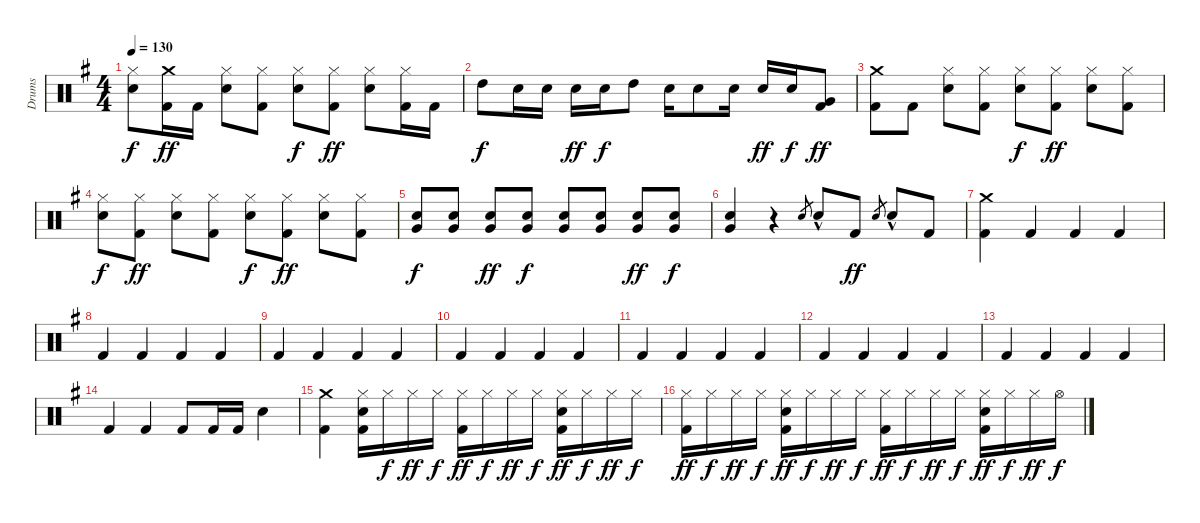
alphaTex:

\track ("Drums" "Drums") {instrument percussion}
\staff {score}
\articulation defaults
\ts (4 4)
\tempo 130
\clef neutral
\ks g
("Snare (hit) 2" "Hi-Hat (closed)").8{dy f} ("Kick (hit) 2" "Crash medium (hit)").16{dy ff} "Kick (hit) 2".16 ("Snare (hit) 2" "Hi-Hat (closed)").8 ("Kick (hit) 2" "Hi-Hat (closed)").8 ("Snare (hit) 2" "Hi-Hat (closed)").8{dy f} ("Kick (hit) 2" "Hi-Hat (closed)").8{dy ff} ("Snare (hit) 2" "Hi-Hat (closed)").8 ("Kick (hit) 2" "Hi-Hat (closed)").16 "Kick (hit) 2".16 |
"High Tom (hit)".8{dy f} "Snare (hit) 2".16 "Snare (hit) 2".16 "Snare (hit) 2".16{dy ff} "Snare (hit) 2".16{dy f} "High Tom (hit)".8 "Snare (hit) 2".16 "Snare (hit) 2".8 "Snare (hit) 2".16 "Snare (hit) 2".16{dy ff} "Snare (hit) 2".16{dy f} ("Kick (hit) 2" "Very Low Tom (hit)").8{dy ff} |
("Kick (hit) 2" "Crash medium (hit)").8 "Kick (hit) 2".8 ("Snare (hit) 2" "Hi-Hat (closed)").8 ("Hi-Hat (closed)" "Kick (hit) 2").8 ("Snare (hit) 2" "Hi-Hat (closed)").8{dy f} ("Kick (hit) 2" "Hi-Hat (closed)").8{dy ff} ("Snare (hit) 2" "Hi-Hat (closed)").8 ("Kick (hit) 2" "Hi-Hat (closed)").8 |
("Snare (hit) 2" "Hi-Hat (closed)").8{dy f} ("Kick (hit) 2" "Hi-Hat (closed)").8{dy ff} ("Snare (hit) 2" "Hi-Hat (closed)").8 ("Kick (hit) 2" "Hi-Hat (closed)").8 ("Snare (hit) 2" "Hi-Hat (closed)").8{dy f} ("Kick (hit) 2" "Hi-Hat (closed)").8{dy ff} ("Snare (hit) 2" "Hi-Hat (closed)").8 ("Kick (hit) 2" "Hi-Hat (closed)").8 |
("Very Low Tom (hit)" "Snare (hit) 2").8{dy f} ("Very Low Tom (hit)" "Snare (hit) 2").8 ("Very Low Tom (hit)" "Snare (hit) 2").8{dy ff} ("Very Low Tom (hit)" "Snare (hit) 2").8{dy f} ("Very Low Tom (hit)" "Snare (hit) 2").8 ("Very Low Tom (hit)" "Snare (hit) 2").8 ("Very Low Tom (hit)" "Snare (hit) 2").8{dy ff} ("Very Low Tom (hit)" "Snare (hit) 2").8{dy f} |
("Very Low Tom (hit)" "Snare (hit) 2").4 r.4 "Snare (hit) 2".8{gr} "Snare (hit) 2"{hac}.8 "Kick (hit) 2".8{dy ff} "Snare (hit) 2".8{gr} "Snare (hit) 2"{hac}.8 "Kick (hit) 2".8 |
("Kick (hit) 2" "Crash medium (hit)").4 "Kick (hit) 2".4 "Kick (hit) 2".4 "Kick (hit) 2".4 |
"Kick (hit) 2".4 "Kick (hit) 2".4 "Kick (hit) 2".4 "Kick (hit) 2".4 |
"Kick (hit) 2".4 "Kick (hit) 2".4 "Kick (hit) 2".4 "Kick (hit) 2".4 |
"Kick (hit) 2".4 "Kick (hit) 2".4 "Kick (hit) 2".4 "Kick (hit) 2".4 |
"Kick (hit) 2".4 "Kick (hit) 2".4 "Kick (hit) 2".4 "Kick (hit) 2".4 |
"Kick (hit) 2".4 "Kick (hit) 2".4 "Kick (hit) 2".4 "Kick (hit) 2".4 |
"Kick (hit) 2".4 "Kick (hit) 2".4 "Kick (hit) 2".4 "Kick (hit) 2".4 |
"Kick (hit) 2".4 "Kick (hit) 2".4 "Kick (hit) 2".8 "Kick (hit) 2".16 "Kick (hit) 2".16 "Snare (hit) 2".4 |
("Crash medium (hit)" "Kick (hit) 2").4 ("Hi-Hat (closed)" "Snare (hit) 2" "Kick (hit) 2").16 "Hi-Hat (closed)".16{dy f} "Hi-Hat (closed)".16{dy ff} "Hi-Hat (closed)".16{dy f} ("Hi-Hat (closed)" "Kick (hit) 2").16{dy ff} "Hi-Hat (closed)".16{dy f} "Hi-Hat (closed)".16{dy ff} "Hi-Hat (closed)".16{dy f} ("Hi-Hat (closed)" "Snare (hit) 2" "Kick (hit) 2").16{dy ff} "Hi-Hat (closed)".16{dy f} "Hi-Hat (closed)".16{dy ff} "Hi-Hat (closed)".16{dy f} |
("Hi-Hat (closed)" "Kick (hit) 2").16{dy ff} "Hi-Hat (closed)".16{dy f} "Hi-Hat (closed)".16{dy ff} "Hi-Hat (closed)".16{dy f} ("Hi-Hat (closed)" "Snare (hit) 2" "Kick (hit) 2").16{dy ff} "Hi-Hat (closed)".16{dy f} "Hi-Hat (closed)".16{dy ff} "Hi-Hat (closed)".16{dy f} ("Hi-Hat (closed)" "Kick (hit) 2").16{dy ff} "Hi-Hat (closed)".16{dy f} "Hi-Hat (closed)".16{dy ff} "Hi-Hat (closed)".16{dy f} ("Hi-Hat (closed)" "Snare (hit) 2" "Kick (hit) 2").16{dy ff} "Hi-Hat (closed)".16{dy f} "Hi-Hat (closed)".16{dy ff} "Hi-Hat (open)".16{dy f}
